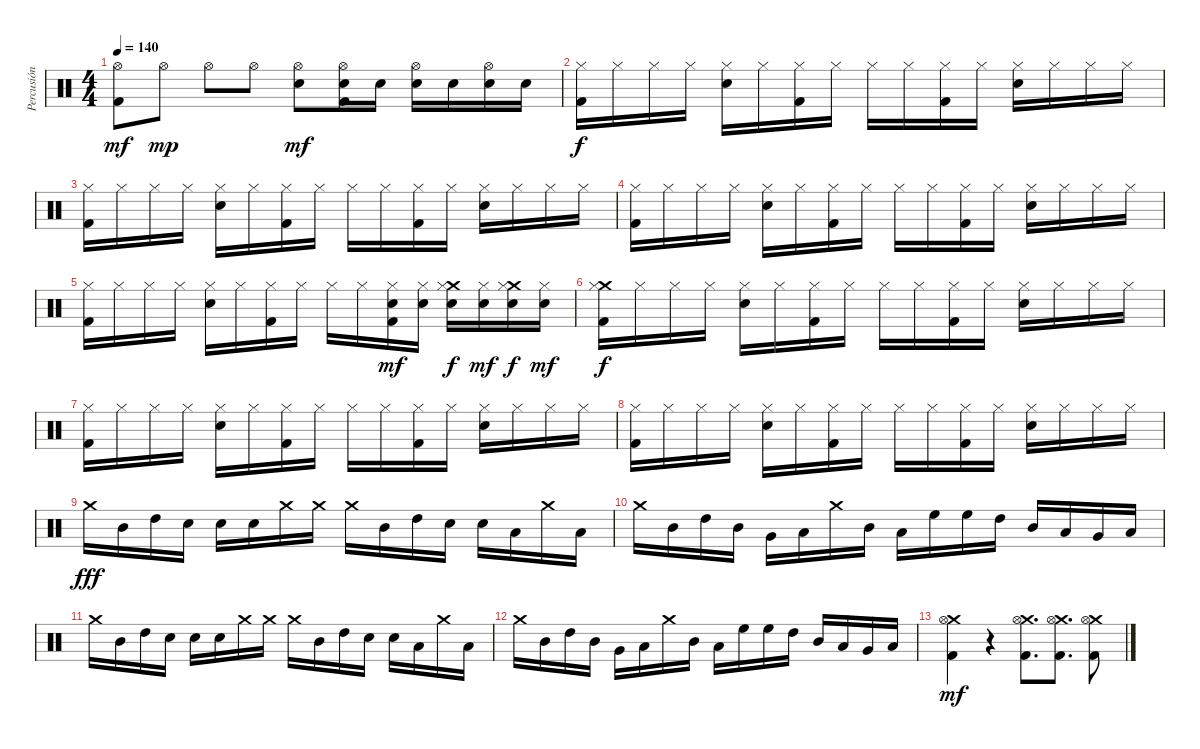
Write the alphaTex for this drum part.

\track ("Percusión" "Percusión") {instrument percussion}
\staff {score}
\articulation defaults
\ts (4 4)
\tempo 140
\clef neutral
\ks c
("Hi-Hat (open)" "Kick (hit) 2").8{dy mf} "Hi-Hat (open)".8{dy mp} "Hi-Hat (open)".8 "Hi-Hat (open)".8 ("Hi-Hat (open)" "Electric Snare (hit)").8{dy mf} ("Hi-Hat (open)" "Electric Snare (hit)" "Kick (hit) 2").16 "Electric Snare (hit)".16 ("Hi-Hat (open)" "Electric Snare (hit)").16 "Electric Snare (hit)".16 ("Hi-Hat (open)" "Electric Snare (hit)").16 "Electric Snare (hit)".16 |
("Hi-Hat (closed)" "Kick (hit) 2").16{dy f} "Hi-Hat (closed)".16 "Hi-Hat (closed)".16 "Hi-Hat (closed)".16 ("Hi-Hat (closed)" "Electric Snare (hit)").16 "Hi-Hat (closed)".16 ("Hi-Hat (closed)" "Kick (hit) 2").16 "Hi-Hat (closed)".16 "Hi-Hat (closed)".16 "Hi-Hat (closed)".16 ("Hi-Hat (closed)" "Kick (hit) 2").16 "Hi-Hat (closed)".16 ("Hi-Hat (closed)" "Electric Snare (hit)").16 "Hi-Hat (closed)".16 "Hi-Hat (closed)".16 "Hi-Hat (closed)".16 |
("Hi-Hat (closed)" "Kick (hit) 2").16 "Hi-Hat (closed)".16 "Hi-Hat (closed)".16 "Hi-Hat (closed)".16 ("Hi-Hat (closed)" "Electric Snare (hit)").16 "Hi-Hat (closed)".16 ("Hi-Hat (closed)" "Kick (hit) 2").16 "Hi-Hat (closed)".16 "Hi-Hat (closed)".16 "Hi-Hat (closed)".16 ("Hi-Hat (closed)" "Kick (hit) 2").16 "Hi-Hat (closed)".16 ("Hi-Hat (closed)" "Electric Snare (hit)").16 "Hi-Hat (closed)".16 "Hi-Hat (closed)".16 "Hi-Hat (closed)".16 |
("Hi-Hat (closed)" "Kick (hit) 2").16 "Hi-Hat (closed)".16 "Hi-Hat (closed)".16 "Hi-Hat (closed)".16 ("Hi-Hat (closed)" "Electric Snare (hit)").16 "Hi-Hat (closed)".16 ("Hi-Hat (closed)" "Kick (hit) 2").16 "Hi-Hat (closed)".16 "Hi-Hat (closed)".16 "Hi-Hat (closed)".16 ("Hi-Hat (closed)" "Kick (hit) 2").16 "Hi-Hat (closed)".16 ("Hi-Hat (closed)" "Electric Snare (hit)").16 "Hi-Hat (closed)".16 "Hi-Hat (closed)".16 "Hi-Hat (closed)".16 |
("Hi-Hat (closed)" "Kick (hit) 2").16 "Hi-Hat (closed)".16 "Hi-Hat (closed)".16 "Hi-Hat (closed)".16 ("Hi-Hat (closed)" "Electric Snare (hit)").16 "Hi-Hat (closed)".16 ("Hi-Hat (closed)" "Kick (hit) 2").16 "Hi-Hat (closed)".16 "Hi-Hat (closed)".16 "Hi-Hat (closed)".16 ("Hi-Hat (closed)" "Electric Snare (hit)" "Kick (hit) 2").16{dy mf} ("Hi-Hat (closed)" "Electric Snare (hit)").16 ("Crash medium (hit)" "Hi-Hat (closed)" "Electric Snare (hit)").16{dy f} ("Hi-Hat (closed)" "Electric Snare (hit)").16{dy mf} ("Crash medium (hit)" "Hi-Hat (closed)" "Electric Snare (hit)").16{dy f} ("Hi-Hat (closed)" "Electric Snare (hit)").16{dy mf} |
("Crash medium (hit)" "Hi-Hat (closed)" "Kick (hit) 2").16{dy f} "Hi-Hat (closed)".16 "Hi-Hat (closed)".16 "Hi-Hat (closed)".16 ("Hi-Hat (closed)" "Electric Snare (hit)").16 "Hi-Hat (closed)".16 ("Hi-Hat (closed)" "Kick (hit) 2").16 "Hi-Hat (closed)".16 "Hi-Hat (closed)".16 "Hi-Hat (closed)".16 ("Hi-Hat (closed)" "Kick (hit) 2").16 "Hi-Hat (closed)".16 ("Hi-Hat (closed)" "Electric Snare (hit)").16 "Hi-Hat (closed)".16 "Hi-Hat (closed)".16 "Hi-Hat (closed)".16 |
("Hi-Hat (closed)" "Kick (hit) 2").16 "Hi-Hat (closed)".16 "Hi-Hat (closed)".16 "Hi-Hat (closed)".16 ("Hi-Hat (closed)" "Electric Snare (hit)").16 "Hi-Hat (closed)".16 ("Hi-Hat (closed)" "Kick (hit) 2").16 "Hi-Hat (closed)".16 "Hi-Hat (closed)".16 "Hi-Hat (closed)".16 ("Hi-Hat (closed)" "Kick (hit) 2").16 "Hi-Hat (closed)".16 ("Hi-Hat (closed)" "Electric Snare (hit)").16 "Hi-Hat (closed)".16 "Hi-Hat (closed)".16 "Hi-Hat (closed)".16 |
("Hi-Hat (closed)" "Kick (hit) 2").16 "Hi-Hat (closed)".16 "Hi-Hat (closed)".16 "Hi-Hat (closed)".16 ("Hi-Hat (closed)" "Electric Snare (hit)").16 "Hi-Hat (closed)".16 ("Hi-Hat (closed)" "Kick (hit) 2").16 "Hi-Hat (closed)".16 "Hi-Hat (closed)".16 "Hi-Hat (closed)".16 ("Hi-Hat (closed)" "Kick (hit) 2").16 "Hi-Hat (closed)".16 ("Hi-Hat (closed)" "Electric Snare (hit)").16 "Hi-Hat (closed)".16 "Hi-Hat (closed)".16 "Hi-Hat (closed)".16 |
"Crash medium (hit)".16{dy fff} "Mid Tom (hit)".16 "High Tom (hit)".16 "Electric Snare (hit)".16 "Electric Snare (hit)".16 "Electric Snare (hit)".16 "Crash medium (hit)".16 "Crash medium (hit)".16 "Crash medium (hit)".16 "Mid Tom (hit)".16 "High Tom (hit)".16 "Electric Snare (hit)".16 "Electric Snare (hit)".16 "Low Floor Tom (hit)".16 "Crash medium (hit)".16 "Low Tom (hit)".16 |
"Crash medium (hit)".16 "Mid Tom (hit)".16 "High Tom (hit)".16 "Mid Tom (hit)".16 "Very Low Tom (hit)".16 "Low Tom (hit)".16 "Crash medium (hit)".16 "Mid Tom (hit)".16 "Low Tom (hit)".16 "High Floor Tom (hit)".16 "High Floor Tom (hit)".16 "High Tom (hit)".16 "Mid Tom (hit)".16 "Low Tom (hit)".16 "Very Low Tom (hit)".16 "Low Floor Tom (hit)".16 |
"Crash medium (hit)".16 "Mid Tom (hit)".16 "High Tom (hit)".16 "Electric Snare (hit)".16 "Electric Snare (hit)".16 "Electric Snare (hit)".16 "Crash medium (hit)".16 "Crash medium (hit)".16 "Crash medium (hit)".16 "Mid Tom (hit)".16 "High Tom (hit)".16 "Electric Snare (hit)".16 "Electric Snare (hit)".16 "Low Floor Tom (hit)".16 "Crash medium (hit)".16 "Low Tom (hit)".16 |
"Crash medium (hit)".16 "Mid Tom (hit)".16 "High Tom (hit)".16 "Mid Tom (hit)".16 "Very Low Tom (hit)".16 "Low Tom (hit)".16 "Crash medium (hit)".16 "Mid Tom (hit)".16 "Low Tom (hit)".16 "High Floor Tom (hit)".16 "High Floor Tom (hit)".16 "High Tom (hit)".16 "Mid Tom (hit)".16 "Low Tom (hit)".16 "Very Low Tom (hit)".16 "Low Floor Tom (hit)".16 |
("Crash medium (hit)" "Kick (hit) 2" "Hi-Hat (open)").4{dy mf} r.4 ("Crash medium (hit)" "Kick (hit) 2" "Hi-Hat (open)").8{d} ("Crash medium (hit)" "Kick (hit) 2" "Hi-Hat (open)").8{d} ("Crash medium (hit)" "Kick (hit) 2" "Hi-Hat (open)").8
